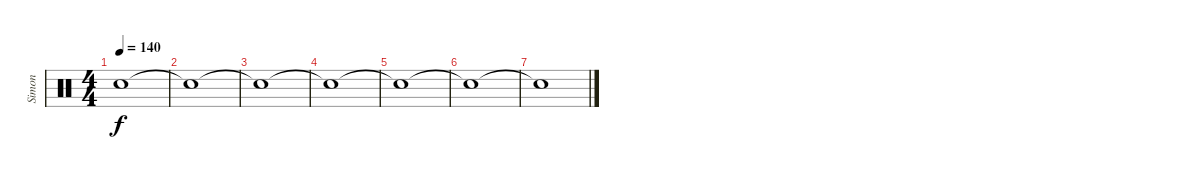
\track ("Simon" "Simon") {instrument percussion}
\staff {score}
\articulation defaults
\ts (4 4)
\tempo 140
\clef neutral
\ks c "Snare (hit)"{t}.1{dy f}
|
"Snare (hit)"{t}.1 |
"Snare (hit)"{t}.1 |
"Snare (hit)"{t}.1 |
"Snare (hit)"{t}.1 |
"Snare (hit)"{t}.1 |
"Snare (hit)"{t}.1
